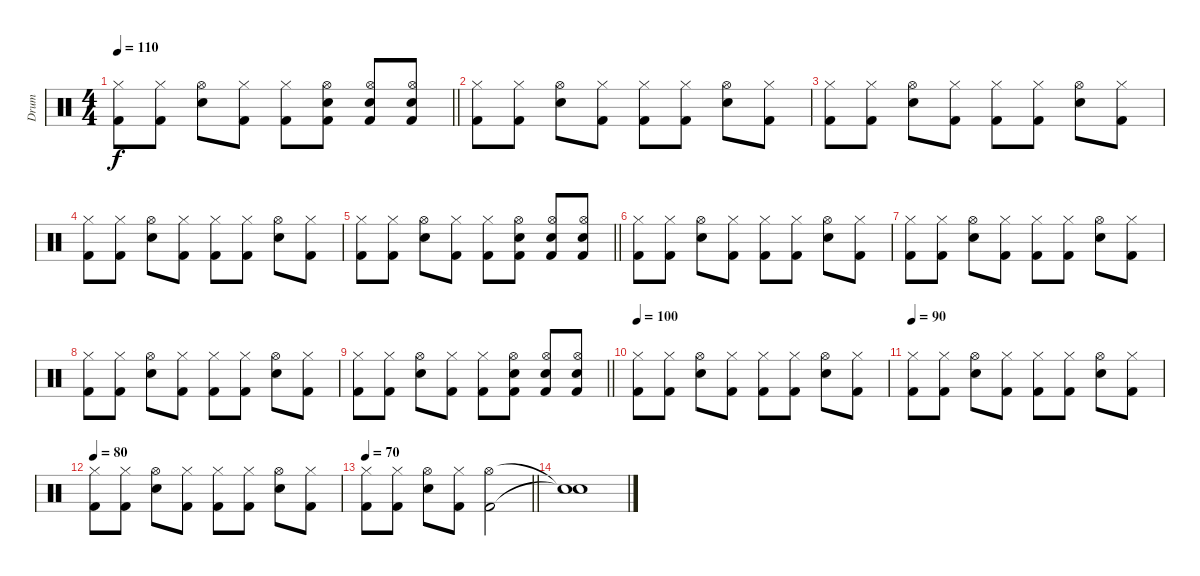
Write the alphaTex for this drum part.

\track ("Drum" "Drum") {instrument percussion}
\staff {score}
\articulation defaults
\ts (4 4)
\tempo 110
\clef neutral
\barLineRight lightlight
\ks c
("Hi-Hat (closed)" "Kick (hit) 2").8{dy f} ("Hi-Hat (closed)" "Kick (hit) 2").8 ("Hi-Hat (open)" "Snare (hit) 2").8 ("Hi-Hat (closed)" "Kick (hit) 2").8 ("Hi-Hat (closed)" "Kick (hit) 2").8 ("Hi-Hat (open)" "Snare (hit) 2" "Kick (hit) 2").8 ("Hi-Hat (open)" "Snare (hit) 2" "Kick (hit) 2").8 ("Hi-Hat (open)" "Snare (hit) 2" "Kick (hit) 2").8 |
("Hi-Hat (closed)" "Kick (hit) 2").8 ("Hi-Hat (closed)" "Kick (hit) 2").8 ("Hi-Hat (open)" "Snare (hit) 2").8 ("Hi-Hat (closed)" "Kick (hit) 2").8 ("Hi-Hat (closed)" "Kick (hit) 2").8 ("Hi-Hat (closed)" "Kick (hit) 2").8 ("Hi-Hat (open)" "Snare (hit) 2").8 ("Hi-Hat (closed)" "Kick (hit) 2").8 |
("Hi-Hat (closed)" "Kick (hit) 2").8 ("Hi-Hat (closed)" "Kick (hit) 2").8 ("Hi-Hat (open)" "Snare (hit) 2").8 ("Hi-Hat (closed)" "Kick (hit) 2").8 ("Hi-Hat (closed)" "Kick (hit) 2").8 ("Hi-Hat (closed)" "Kick (hit) 2").8 ("Hi-Hat (open)" "Snare (hit) 2").8 ("Hi-Hat (closed)" "Kick (hit) 2").8 |
("Hi-Hat (closed)" "Kick (hit) 2").8 ("Hi-Hat (closed)" "Kick (hit) 2").8 ("Hi-Hat (open)" "Snare (hit) 2").8 ("Hi-Hat (closed)" "Kick (hit) 2").8 ("Hi-Hat (closed)" "Kick (hit) 2").8 ("Hi-Hat (closed)" "Kick (hit) 2").8 ("Hi-Hat (open)" "Snare (hit) 2").8 ("Hi-Hat (closed)" "Kick (hit) 2").8 |
\barLineRight lightlight
("Hi-Hat (closed)" "Kick (hit) 2").8 ("Hi-Hat (closed)" "Kick (hit) 2").8 ("Hi-Hat (open)" "Snare (hit) 2").8 ("Hi-Hat (closed)" "Kick (hit) 2").8 ("Hi-Hat (closed)" "Kick (hit) 2").8 ("Hi-Hat (open)" "Snare (hit) 2" "Kick (hit) 2").8 ("Hi-Hat (open)" "Snare (hit) 2" "Kick (hit) 2").8 ("Hi-Hat (open)" "Snare (hit) 2" "Kick (hit) 2").8 |
("Hi-Hat (closed)" "Kick (hit) 2").8 ("Hi-Hat (closed)" "Kick (hit) 2").8 ("Hi-Hat (open)" "Snare (hit) 2").8 ("Hi-Hat (closed)" "Kick (hit) 2").8 ("Hi-Hat (closed)" "Kick (hit) 2").8 ("Hi-Hat (closed)" "Kick (hit) 2").8 ("Hi-Hat (open)" "Snare (hit) 2").8 ("Hi-Hat (closed)" "Kick (hit) 2").8 |
("Hi-Hat (closed)" "Kick (hit) 2").8 ("Hi-Hat (closed)" "Kick (hit) 2").8 ("Hi-Hat (open)" "Snare (hit) 2").8 ("Hi-Hat (closed)" "Kick (hit) 2").8 ("Hi-Hat (closed)" "Kick (hit) 2").8 ("Hi-Hat (closed)" "Kick (hit) 2").8 ("Hi-Hat (open)" "Snare (hit) 2").8 ("Hi-Hat (closed)" "Kick (hit) 2").8 |
("Hi-Hat (closed)" "Kick (hit) 2").8 ("Hi-Hat (closed)" "Kick (hit) 2").8 ("Hi-Hat (open)" "Snare (hit) 2").8 ("Hi-Hat (closed)" "Kick (hit) 2").8 ("Hi-Hat (closed)" "Kick (hit) 2").8 ("Hi-Hat (closed)" "Kick (hit) 2").8 ("Hi-Hat (open)" "Snare (hit) 2").8 ("Hi-Hat (closed)" "Kick (hit) 2").8 |
\barLineRight lightlight
("Hi-Hat (closed)" "Kick (hit) 2").8 ("Hi-Hat (closed)" "Kick (hit) 2").8 ("Hi-Hat (open)" "Snare (hit) 2").8 ("Hi-Hat (closed)" "Kick (hit) 2").8 ("Hi-Hat (closed)" "Kick (hit) 2").8 ("Hi-Hat (open)" "Snare (hit) 2" "Kick (hit) 2").8 ("Hi-Hat (open)" "Snare (hit) 2" "Kick (hit) 2").8 ("Hi-Hat (open)" "Snare (hit) 2" "Kick (hit) 2").8 |
\section ("" "")
\tempo 100
("Hi-Hat (closed)" "Kick (hit) 2").8 ("Hi-Hat (closed)" "Kick (hit) 2").8 ("Hi-Hat (open)" "Snare (hit) 2").8 ("Hi-Hat (closed)" "Kick (hit) 2").8 ("Hi-Hat (closed)" "Kick (hit) 2").8 ("Hi-Hat (closed)" "Kick (hit) 2").8 ("Hi-Hat (open)" "Snare (hit) 2").8 ("Hi-Hat (closed)" "Kick (hit) 2").8 |
\tempo 90
("Hi-Hat (closed)" "Kick (hit) 2").8 ("Hi-Hat (closed)" "Kick (hit) 2").8 ("Hi-Hat (open)" "Snare (hit) 2").8 ("Hi-Hat (closed)" "Kick (hit) 2").8 ("Hi-Hat (closed)" "Kick (hit) 2").8 ("Hi-Hat (closed)" "Kick (hit) 2").8 ("Hi-Hat (open)" "Snare (hit) 2").8 ("Hi-Hat (closed)" "Kick (hit) 2").8 |
\tempo 80
("Hi-Hat (closed)" "Kick (hit) 2").8 ("Hi-Hat (closed)" "Kick (hit) 2").8 ("Hi-Hat (open)" "Snare (hit) 2").8 ("Hi-Hat (closed)" "Kick (hit) 2").8 ("Hi-Hat (closed)" "Kick (hit) 2").8 ("Hi-Hat (closed)" "Kick (hit) 2").8 ("Hi-Hat (open)" "Snare (hit) 2").8 ("Hi-Hat (closed)" "Kick (hit) 2").8 |
\tempo 70
\barLineRight lightlight
("Hi-Hat (closed)" "Kick (hit) 2").8 ("Hi-Hat (closed)" "Kick (hit) 2").8 ("Hi-Hat (open)" "Snare (hit) 2").8 ("Hi-Hat (closed)" "Kick (hit) 2").8 ("Hi-Hat (open)" "Kick (hit) 2").2 |
("Snare (hit)"{t} "Snare (hit)"{t}).1
